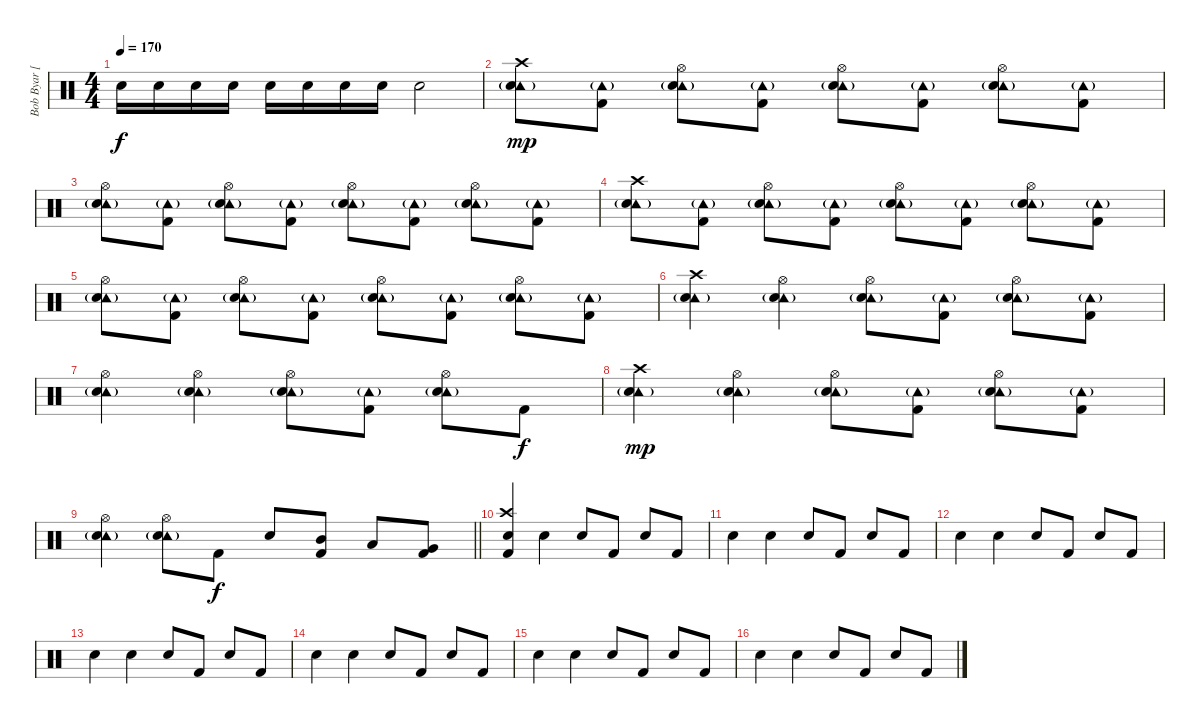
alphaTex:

\track ("Bob Byar [Drums]" "Bob Byar [") {instrument percussion}
\staff {score}
\articulation defaults
\ts (4 4)
\tempo 170
\clef neutral
\ks c "Electric Snare (hit)".16{dy f} "Electric Snare (hit)".16 "Electric Snare (hit)".16 "Electric Snare (hit)".16 "Electric Snare (hit)".16 "Electric Snare (hit)".16 "Electric Snare (hit)".16 "Electric Snare (hit)".16 "Electric Snare (hit)".2
|
("Tambourine (hit)"{g} "Crash high (hit)" "Electric Snare (hit)").8{dy mp} ("Tambourine (hit)"{g} "Kick (hit) 2").8 ("Tambourine (hit)"{g} "Hi-Hat (open)" "Electric Snare (hit)").8 ("Tambourine (hit)"{g} "Kick (hit) 2").8 ("Tambourine (hit)"{g} "Hi-Hat (open)" "Electric Snare (hit)").8 ("Tambourine (hit)"{g} "Kick (hit) 2").8 ("Tambourine (hit)"{g} "Hi-Hat (open)" "Electric Snare (hit)").8 ("Tambourine (hit)"{g} "Kick (hit) 2").8 |
("Tambourine (hit)"{g} "Hi-Hat (open)" "Electric Snare (hit)").8 ("Tambourine (hit)"{g} "Kick (hit) 2").8 ("Tambourine (hit)"{g} "Hi-Hat (open)" "Electric Snare (hit)").8 ("Tambourine (hit)"{g} "Kick (hit) 2").8 ("Tambourine (hit)"{g} "Hi-Hat (open)" "Electric Snare (hit)").8 ("Tambourine (hit)"{g} "Kick (hit) 2").8 ("Tambourine (hit)"{g} "Hi-Hat (open)" "Electric Snare (hit)").8 ("Tambourine (hit)"{g} "Kick (hit) 2").8 |
("Tambourine (hit)"{g} "Crash high (hit)" "Electric Snare (hit)").8 ("Tambourine (hit)"{g} "Kick (hit) 2").8 ("Tambourine (hit)"{g} "Hi-Hat (open)" "Electric Snare (hit)").8 ("Tambourine (hit)"{g} "Kick (hit) 2").8 ("Tambourine (hit)"{g} "Hi-Hat (open)" "Electric Snare (hit)").8 ("Tambourine (hit)"{g} "Kick (hit) 2").8 ("Tambourine (hit)"{g} "Hi-Hat (open)" "Electric Snare (hit)").8 ("Tambourine (hit)"{g} "Kick (hit) 2").8 |
("Tambourine (hit)"{g} "Hi-Hat (open)" "Electric Snare (hit)").8 ("Tambourine (hit)"{g} "Kick (hit) 2").8 ("Tambourine (hit)"{g} "Hi-Hat (open)" "Electric Snare (hit)").8 ("Tambourine (hit)"{g} "Kick (hit) 2").8 ("Tambourine (hit)"{g} "Hi-Hat (open)" "Electric Snare (hit)").8 ("Tambourine (hit)"{g} "Kick (hit) 2").8 ("Tambourine (hit)"{g} "Hi-Hat (open)" "Electric Snare (hit)").8 ("Tambourine (hit)"{g} "Kick (hit) 2").8 |
("Tambourine (hit)"{g} "Crash high (hit)" "Electric Snare (hit)").4 ("Tambourine (hit)"{g} "Hi-Hat (open)" "Electric Snare (hit)").4 ("Tambourine (hit)"{g} "Hi-Hat (open)" "Electric Snare (hit)").8 ("Tambourine (hit)"{g} "Kick (hit) 2").8 ("Tambourine (hit)"{g} "Hi-Hat (open)" "Electric Snare (hit)").8 ("Tambourine (hit)"{g} "Kick (hit) 2").8 |
("Tambourine (hit)"{g} "Hi-Hat (open)" "Electric Snare (hit)").4 ("Tambourine (hit)"{g} "Hi-Hat (open)" "Electric Snare (hit)").4 ("Tambourine (hit)"{g} "Hi-Hat (open)" "Electric Snare (hit)").8 ("Tambourine (hit)"{g} "Kick (hit) 2").8 ("Tambourine (hit)"{g} "Hi-Hat (open)" "Electric Snare (hit)").8 "Kick (hit) 2".8{dy f} |
("Tambourine (hit)"{g} "Crash high (hit)" "Electric Snare (hit)").4{dy mp} ("Tambourine (hit)"{g} "Hi-Hat (open)" "Electric Snare (hit)").4 ("Tambourine (hit)"{g} "Hi-Hat (open)" "Electric Snare (hit)").8 ("Tambourine (hit)"{g} "Kick (hit) 2").8 ("Tambourine (hit)"{g} "Hi-Hat (open)" "Electric Snare (hit)").8 ("Tambourine (hit)"{g} "Kick (hit) 2").8 |
\barLineRight lightlight
("Tambourine (hit)"{g} "Hi-Hat (open)" "Electric Snare (hit)").4 ("Tambourine (hit)"{g} "Hi-Hat (open)" "Electric Snare (hit)").8 "Kick (hit) 2".8{dy f} "Electric Snare (hit)".8 ("Mid Tom (hit)" "Kick (hit) 2").8 "Low Tom (hit)".8 ("Very Low Tom (hit)" "Kick (hit) 2").8 |
("Crash high (hit)" "Electric Snare (hit)" "Kick (hit) 2").4 "Electric Snare (hit)".4 "Electric Snare (hit)".8 "Kick (hit) 2".8 "Electric Snare (hit)".8 "Kick (hit) 2".8 |
"Electric Snare (hit)".4 "Electric Snare (hit)".4 "Electric Snare (hit)".8 "Kick (hit) 2".8 "Electric Snare (hit)".8 "Kick (hit) 2".8 |
"Electric Snare (hit)".4 "Electric Snare (hit)".4 "Electric Snare (hit)".8 "Kick (hit) 2".8 "Electric Snare (hit)".8 "Kick (hit) 2".8 |
"Electric Snare (hit)".4 "Electric Snare (hit)".4 "Electric Snare (hit)".8 "Kick (hit) 2".8 "Electric Snare (hit)".8 "Kick (hit) 2".8 |
"Electric Snare (hit)".4 "Electric Snare (hit)".4 "Electric Snare (hit)".8 "Kick (hit) 2".8 "Electric Snare (hit)".8 "Kick (hit) 2".8 |
"Electric Snare (hit)".4 "Electric Snare (hit)".4 "Electric Snare (hit)".8 "Kick (hit) 2".8 "Electric Snare (hit)".8 "Kick (hit) 2".8 |
"Electric Snare (hit)".4 "Electric Snare (hit)".4 "Electric Snare (hit)".8 "Kick (hit) 2".8 "Electric Snare (hit)".8 "Kick (hit) 2".8
